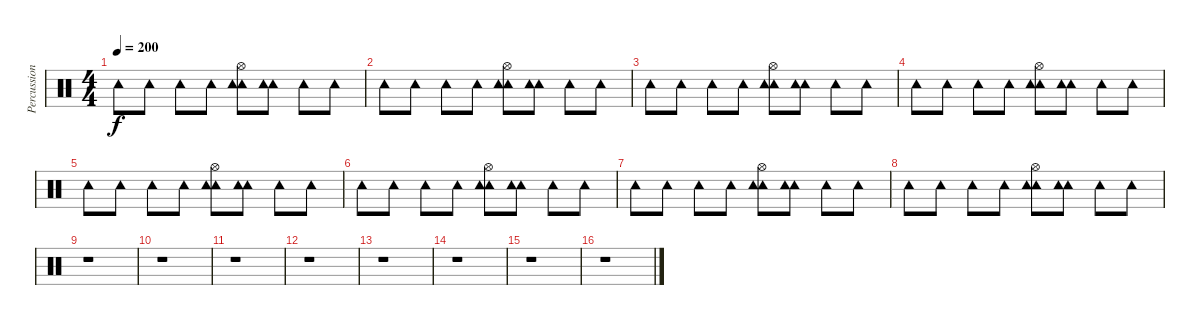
\track ("Percussion" "Percussion") {instrument percussion}
\staff {score}
\articulation defaults
\ts (4 4)
\tempo 200
\clef neutral
\ks c "Tambourine (hit)".8{dy f} "Tambourine (hit)".8 "Tambourine (hit)".8 "Tambourine (hit)".8
("Tambourine (hit)" "Tambourine (hit)" "Hi-Hat (open)").8 ("Tambourine (hit)" "Tambourine (hit)").8 "Tambourine (hit)".8 "Tambourine (hit)".8 |
"Tambourine (hit)".8 "Tambourine (hit)".8 "Tambourine (hit)".8 "Tambourine (hit)".8 ("Tambourine (hit)" "Tambourine (hit)" "Hi-Hat (open)").8 ("Tambourine (hit)" "Tambourine (hit)").8 "Tambourine (hit)".8 "Tambourine (hit)".8 |
"Tambourine (hit)".8 "Tambourine (hit)".8 "Tambourine (hit)".8 "Tambourine (hit)".8 ("Tambourine (hit)" "Tambourine (hit)" "Hi-Hat (open)").8 ("Tambourine (hit)" "Tambourine (hit)").8 "Tambourine (hit)".8 "Tambourine (hit)".8 |
"Tambourine (hit)".8 "Tambourine (hit)".8 "Tambourine (hit)".8 "Tambourine (hit)".8 ("Tambourine (hit)" "Tambourine (hit)" "Hi-Hat (open)").8 ("Tambourine (hit)" "Tambourine (hit)").8 "Tambourine (hit)".8 "Tambourine (hit)".8 |
"Tambourine (hit)".8 "Tambourine (hit)".8 "Tambourine (hit)".8 "Tambourine (hit)".8 ("Tambourine (hit)" "Tambourine (hit)" "Hi-Hat (open)").8 ("Tambourine (hit)" "Tambourine (hit)").8 "Tambourine (hit)".8 "Tambourine (hit)".8 |
"Tambourine (hit)".8 "Tambourine (hit)".8 "Tambourine (hit)".8 "Tambourine (hit)".8 ("Tambourine (hit)" "Tambourine (hit)" "Hi-Hat (open)").8 ("Tambourine (hit)" "Tambourine (hit)").8 "Tambourine (hit)".8 "Tambourine (hit)".8 |
"Tambourine (hit)".8 "Tambourine (hit)".8 "Tambourine (hit)".8 "Tambourine (hit)".8 ("Tambourine (hit)" "Tambourine (hit)" "Hi-Hat (open)").8 ("Tambourine (hit)" "Tambourine (hit)").8 "Tambourine (hit)".8 "Tambourine (hit)".8 |
"Tambourine (hit)".8 "Tambourine (hit)".8 "Tambourine (hit)".8 "Tambourine (hit)".8 ("Tambourine (hit)" "Tambourine (hit)" "Hi-Hat (open)").8 ("Tambourine (hit)" "Tambourine (hit)").8 "Tambourine (hit)".8 "Tambourine (hit)".8 |
r.1 |
r.1 |
r.1 |
r.1 |
r.1 |
r.1 |
r.1 |
r.1
